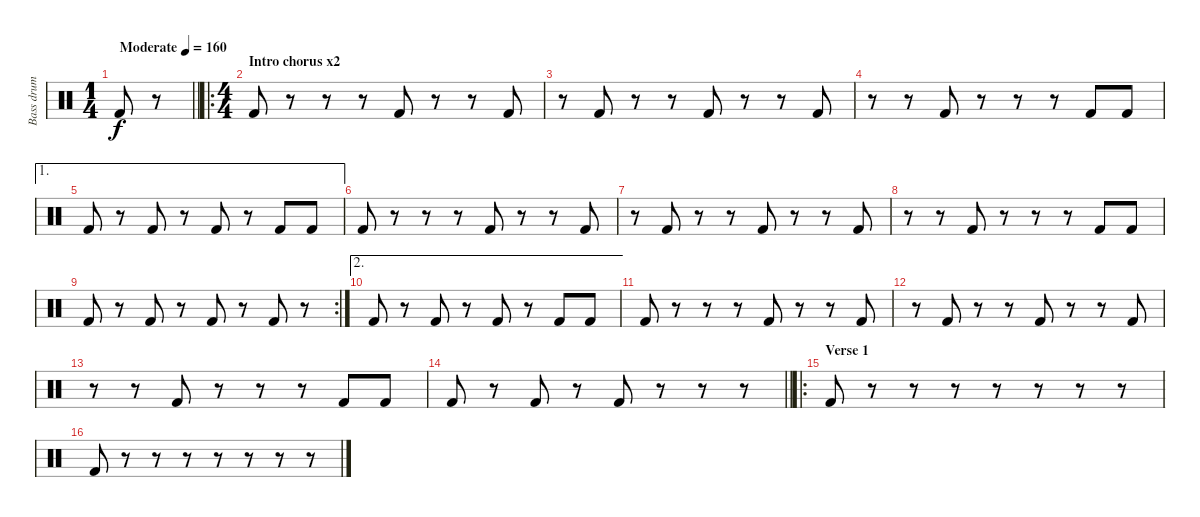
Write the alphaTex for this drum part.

\track ("Bass drum" "Bass drum") {instrument percussion}
\staff {score}
\articulation defaults
\ts (1 4)
\tempo (160 "Moderate")
\clef neutral
\barLineRight lightlight
\ks c "Kick (hit) 2".8{dy f}
r.8 |
\ro
\ts (4 4)
\section ("" "Intro chorus x2")
"Kick (hit) 2".8 r.8 r.8 r.8 "Kick (hit) 2".8 r.8 r.8 "Kick (hit) 2".8 |
r.8 "Kick (hit) 2".8 r.8 r.8 "Kick (hit) 2".8 r.8 r.8 "Kick (hit) 2".8 |
r.8 r.8 "Kick (hit) 2".8 r.8 r.8 r.8 "Kick (hit) 2".8 "Kick (hit) 2".8 |
\ae 1 "Kick (hit) 2".8
r.8 "Kick (hit) 2".8 r.8 "Kick (hit) 2".8 r.8 "Kick (hit) 2".8 "Kick (hit) 2".8 |
"Kick (hit) 2".8 r.8 r.8 r.8 "Kick (hit) 2".8 r.8 r.8 "Kick (hit) 2".8 |
r.8 "Kick (hit) 2".8 r.8 r.8 "Kick (hit) 2".8 r.8 r.8 "Kick (hit) 2".8 |
r.8 r.8 "Kick (hit) 2".8 r.8 r.8 r.8 "Kick (hit) 2".8 "Kick (hit) 2".8 |
\rc 2 "Kick (hit) 2".8
r.8 "Kick (hit) 2".8 r.8 "Kick (hit) 2".8 r.8 "Kick (hit) 2".8 r.8 |
\ae 2 "Kick (hit) 2".8
r.8 "Kick (hit) 2".8 r.8 "Kick (hit) 2".8 r.8 "Kick (hit) 2".8 "Kick (hit) 2".8 |
"Kick (hit) 2".8 r.8 r.8 r.8 "Kick (hit) 2".8 r.8 r.8 "Kick (hit) 2".8 |
r.8 "Kick (hit) 2".8 r.8 r.8 "Kick (hit) 2".8 r.8 r.8 "Kick (hit) 2".8 |
r.8 r.8 "Kick (hit) 2".8 r.8 r.8 r.8 "Kick (hit) 2".8 "Kick (hit) 2".8 |
\barLineRight lightlight "Kick (hit) 2".8
r.8 "Kick (hit) 2".8 r.8 "Kick (hit) 2".8 r.8 r.8 r.8 |
\ro
\section ("" "Verse 1")
"Kick (hit) 2".8 r.8 r.8 r.8 r.8 r.8 r.8 r.8 |
"Kick (hit) 2".8 r.8 r.8 r.8 r.8 r.8 r.8 r.8
